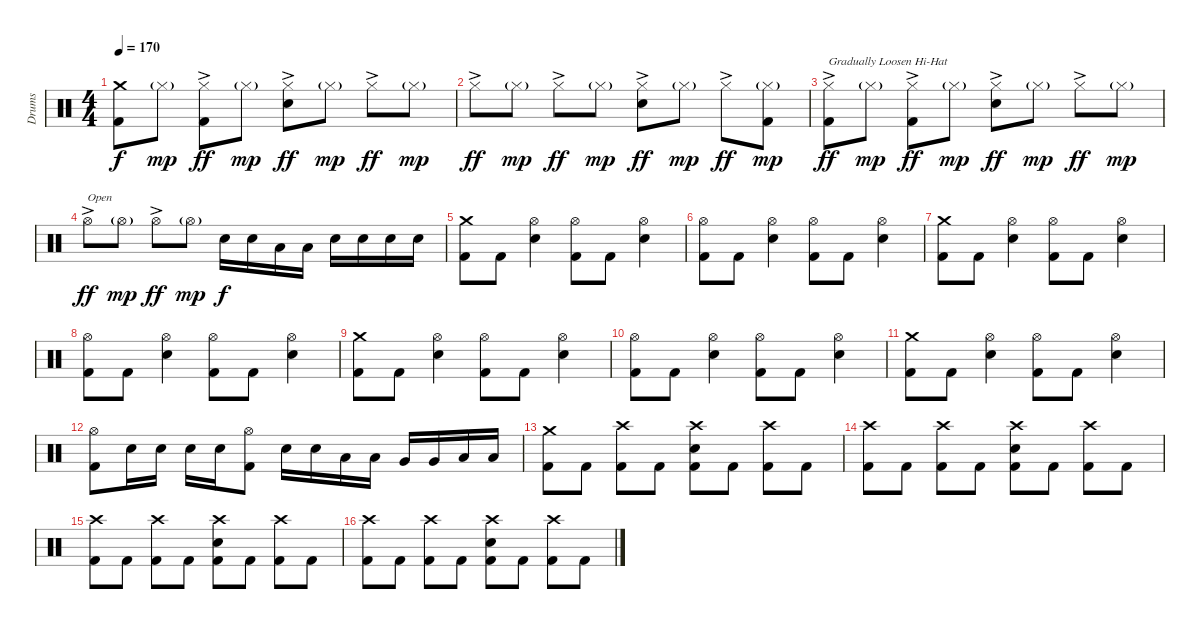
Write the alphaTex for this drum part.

\track ("Drums" "Drums") {instrument percussion}
\staff {score}
\articulation defaults
\ts (4 4)
\tempo 170
\clef neutral
\ks c
("Crash medium (hit)" "Kick (hit) 2").8{dy f} "Hi-Hat (closed)"{g}.8{dy mp} ("Hi-Hat (closed)"{ac} "Kick (hit) 2").8{dy ff} "Hi-Hat (closed)"{g}.8{dy mp} ("Hi-Hat (closed)"{ac} "Snare (hit) 2").8{dy ff} "Hi-Hat (closed)"{g}.8{dy mp} "Hi-Hat (closed)"{ac}.8{dy ff} "Hi-Hat (closed)"{g}.8{dy mp} |
"Hi-Hat (closed)"{ac}.8{dy ff} "Hi-Hat (closed)"{g}.8{dy mp} "Hi-Hat (closed)"{ac}.8{dy ff} "Hi-Hat (closed)"{g}.8{dy mp} ("Hi-Hat (closed)"{ac} "Snare (hit) 2").8{dy ff} "Hi-Hat (closed)"{g}.8{dy mp} "Hi-Hat (closed)"{ac}.8{dy ff} ("Hi-Hat (closed)"{g} "Kick (hit) 2").8{dy mp} |
("Hi-Hat (closed)"{ac} "Kick (hit) 2").8{txt "Gradually Loosen Hi-Hat" dy ff} "Hi-Hat (closed)"{g}.8{dy mp} ("Hi-Hat (closed)"{ac} "Kick (hit) 2").8{dy ff} "Hi-Hat (closed)"{g}.8{dy mp} ("Hi-Hat (closed)"{ac} "Snare (hit) 2").8{dy ff} "Hi-Hat (closed)"{g}.8{dy mp} "Hi-Hat (closed)"{ac}.8{dy ff} "Hi-Hat (closed)"{g}.8{dy mp} |
"Hi-Hat (open)"{ac}.8{txt "Open" dy ff} "Hi-Hat (open)"{g}.8{dy mp} "Hi-Hat (open)"{ac}.8{dy ff} "Hi-Hat (open)"{g}.8{dy mp} "Snare (hit) 2".16{dy f} "Snare (hit) 2".16 "Low Tom (hit)".16 "Low Tom (hit)".16 "Snare (hit) 2".16 "Snare (hit) 2".16 "Snare (hit) 2".16 "Snare (hit) 2".16 |
("Crash medium (hit)" "Kick (hit) 2").8 "Kick (hit) 2".8 ("Hi-Hat (open)" "Snare (hit) 2").4 ("Hi-Hat (open)" "Kick (hit) 2").8 "Kick (hit) 2".8 ("Hi-Hat (open)" "Snare (hit) 2").4 |
("Hi-Hat (open)" "Kick (hit) 2").8 "Kick (hit) 2".8 ("Hi-Hat (open)" "Snare (hit) 2").4 ("Hi-Hat (open)" "Kick (hit) 2").8 "Kick (hit) 2".8 ("Hi-Hat (open)" "Snare (hit) 2").4 |
("Crash medium (hit)" "Kick (hit) 2").8 "Kick (hit) 2".8 ("Hi-Hat (open)" "Snare (hit) 2").4 ("Hi-Hat (open)" "Kick (hit) 2").8 "Kick (hit) 2".8 ("Hi-Hat (open)" "Snare (hit) 2").4 |
("Hi-Hat (open)" "Kick (hit) 2").8 "Kick (hit) 2".8 ("Hi-Hat (open)" "Snare (hit) 2").4 ("Hi-Hat (open)" "Kick (hit) 2").8 "Kick (hit) 2".8 ("Hi-Hat (open)" "Snare (hit) 2").4 |
("Crash medium (hit)" "Kick (hit) 2").8 "Kick (hit) 2".8 ("Hi-Hat (open)" "Snare (hit) 2").4 ("Hi-Hat (open)" "Kick (hit) 2").8 "Kick (hit) 2".8 ("Hi-Hat (open)" "Snare (hit) 2").4 |
("Hi-Hat (open)" "Kick (hit) 2").8 "Kick (hit) 2".8 ("Hi-Hat (open)" "Snare (hit) 2").4 ("Hi-Hat (open)" "Kick (hit) 2").8 "Kick (hit) 2".8 ("Hi-Hat (open)" "Snare (hit) 2").4 |
("Crash medium (hit)" "Kick (hit) 2").8 "Kick (hit) 2".8 ("Hi-Hat (open)" "Snare (hit) 2").4 ("Hi-Hat (open)" "Kick (hit) 2").8 "Kick (hit) 2".8 ("Hi-Hat (open)" "Snare (hit) 2").4 |
("Hi-Hat (open)" "Kick (hit) 2").8 "Snare (hit) 2".16 "Snare (hit) 2".16 "Snare (hit) 2".16 "Snare (hit) 2".16 ("Hi-Hat (open)" "Kick (hit) 2").8 "Snare (hit) 2".16 "Snare (hit) 2".16 "Low Tom (hit)".16 "Low Tom (hit)".16 "Very Low Tom (hit)".16 "Very Low Tom (hit)".16 "Low Floor Tom (hit)".16 "Low Floor Tom (hit)".16 |
("Crash medium (hit)" "Kick (hit) 2").8 "Kick (hit) 2".8 ("Crash high (hit)" "Kick (hit) 2").8 "Kick (hit) 2".8 ("Crash high (hit)" "Snare (hit) 2" "Kick (hit) 2").8 "Kick (hit) 2".8 ("Crash high (hit)" "Kick (hit) 2").8 "Kick (hit) 2".8 |
("Crash high (hit)" "Kick (hit) 2").8 "Kick (hit) 2".8 ("Crash high (hit)" "Kick (hit) 2").8 "Kick (hit) 2".8 ("Crash high (hit)" "Snare (hit) 2" "Kick (hit) 2").8 "Kick (hit) 2".8 ("Crash high (hit)" "Kick (hit) 2").8 "Kick (hit) 2".8 |
("Crash high (hit)" "Kick (hit) 2").8 "Kick (hit) 2".8 ("Crash high (hit)" "Kick (hit) 2").8 "Kick (hit) 2".8 ("Crash high (hit)" "Snare (hit) 2" "Kick (hit) 2").8 "Kick (hit) 2".8 ("Crash high (hit)" "Kick (hit) 2").8 "Kick (hit) 2".8 |
("Crash high (hit)" "Kick (hit) 2").8 "Kick (hit) 2".8 ("Crash high (hit)" "Kick (hit) 2").8 "Kick (hit) 2".8 ("Crash high (hit)" "Snare (hit) 2" "Kick (hit) 2").8 "Kick (hit) 2".8 ("Crash high (hit)" "Kick (hit) 2").8 "Kick (hit) 2".8
